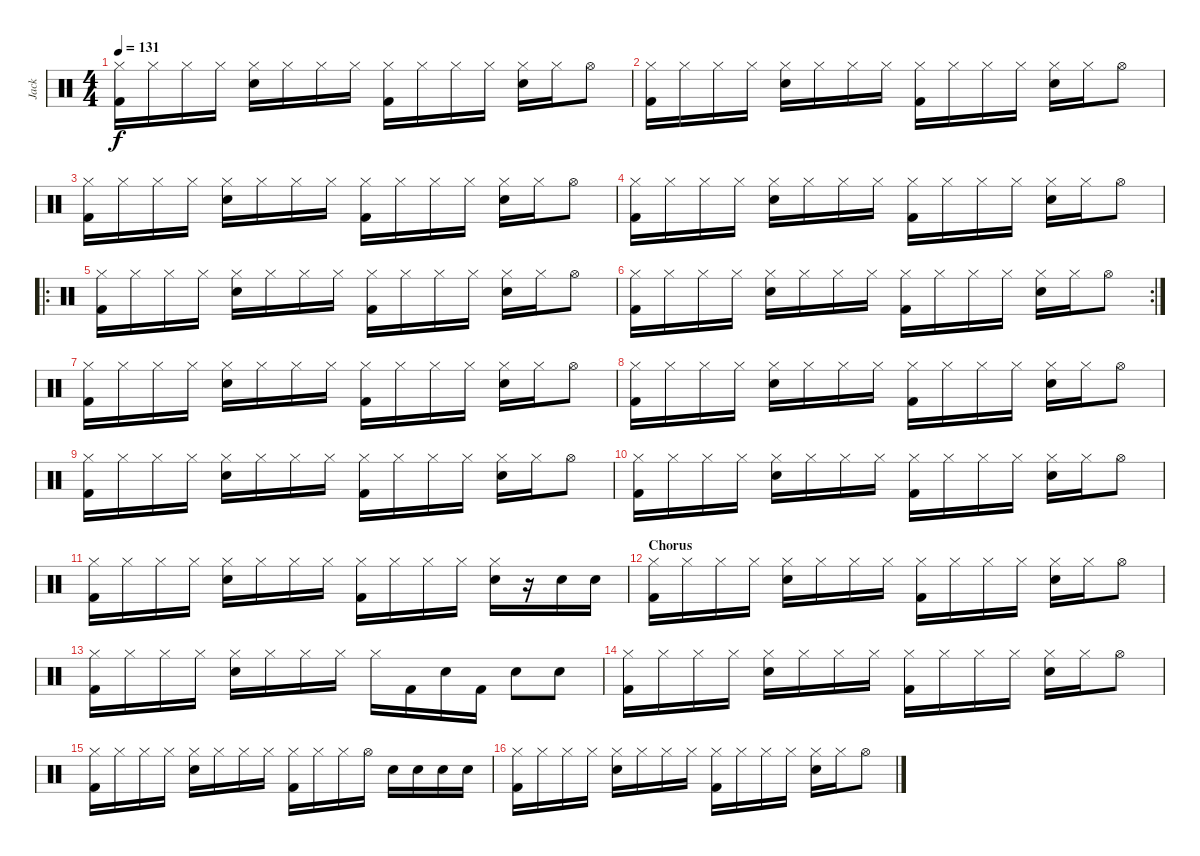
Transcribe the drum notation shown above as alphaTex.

\track ("Jack" "Jack") {instrument percussion}
\staff {score}
\articulation defaults
\ts (4 4)
\tempo 131
\clef neutral
\ks c
("Hi-Hat (closed)" "Kick (hit) 2").16{dy f} "Hi-Hat (closed)".16 "Hi-Hat (closed)".16 "Hi-Hat (closed)".16 ("Hi-Hat (closed)" "Electric Snare (hit)").16 "Hi-Hat (closed)".16 "Hi-Hat (closed)".16 "Hi-Hat (closed)".16 ("Hi-Hat (closed)" "Kick (hit) 2").16 "Hi-Hat (closed)".16 "Hi-Hat (closed)".16 "Hi-Hat (closed)".16 ("Hi-Hat (closed)" "Electric Snare (hit)").16 "Hi-Hat (closed)".16 "Hi-Hat (open)".8 |
("Hi-Hat (closed)" "Kick (hit) 2").16 "Hi-Hat (closed)".16 "Hi-Hat (closed)".16 "Hi-Hat (closed)".16 ("Hi-Hat (closed)" "Electric Snare (hit)").16 "Hi-Hat (closed)".16 "Hi-Hat (closed)".16 "Hi-Hat (closed)".16 ("Hi-Hat (closed)" "Kick (hit) 2").16 "Hi-Hat (closed)".16 "Hi-Hat (closed)".16 "Hi-Hat (closed)".16 ("Hi-Hat (closed)" "Electric Snare (hit)").16 "Hi-Hat (closed)".16 "Hi-Hat (open)".8 |
("Hi-Hat (closed)" "Kick (hit) 2").16 "Hi-Hat (closed)".16 "Hi-Hat (closed)".16 "Hi-Hat (closed)".16 ("Hi-Hat (closed)" "Electric Snare (hit)").16 "Hi-Hat (closed)".16 "Hi-Hat (closed)".16 "Hi-Hat (closed)".16 ("Hi-Hat (closed)" "Kick (hit) 2").16 "Hi-Hat (closed)".16 "Hi-Hat (closed)".16 "Hi-Hat (closed)".16 ("Hi-Hat (closed)" "Electric Snare (hit)").16 "Hi-Hat (closed)".16 "Hi-Hat (open)".8 |
("Hi-Hat (closed)" "Kick (hit) 2").16 "Hi-Hat (closed)".16 "Hi-Hat (closed)".16 "Hi-Hat (closed)".16 ("Hi-Hat (closed)" "Electric Snare (hit)").16 "Hi-Hat (closed)".16 "Hi-Hat (closed)".16 "Hi-Hat (closed)".16 ("Hi-Hat (closed)" "Kick (hit) 2").16 "Hi-Hat (closed)".16 "Hi-Hat (closed)".16 "Hi-Hat (closed)".16 ("Hi-Hat (closed)" "Electric Snare (hit)").16 "Hi-Hat (closed)".16 "Hi-Hat (open)".8 |
\ro
("Hi-Hat (closed)" "Kick (hit) 2").16 "Hi-Hat (closed)".16 "Hi-Hat (closed)".16 "Hi-Hat (closed)".16 ("Hi-Hat (closed)" "Electric Snare (hit)").16 "Hi-Hat (closed)".16 "Hi-Hat (closed)".16 "Hi-Hat (closed)".16 ("Hi-Hat (closed)" "Kick (hit) 2").16 "Hi-Hat (closed)".16 "Hi-Hat (closed)".16 "Hi-Hat (closed)".16 ("Hi-Hat (closed)" "Electric Snare (hit)").16 "Hi-Hat (closed)".16 "Hi-Hat (open)".8 |
\rc 2
("Hi-Hat (closed)" "Kick (hit) 2").16 "Hi-Hat (closed)".16 "Hi-Hat (closed)".16 "Hi-Hat (closed)".16 ("Hi-Hat (closed)" "Electric Snare (hit)").16 "Hi-Hat (closed)".16 "Hi-Hat (closed)".16 "Hi-Hat (closed)".16 ("Hi-Hat (closed)" "Kick (hit) 2").16 "Hi-Hat (closed)".16 "Hi-Hat (closed)".16 "Hi-Hat (closed)".16 ("Hi-Hat (closed)" "Electric Snare (hit)").16 "Hi-Hat (closed)".16 "Hi-Hat (open)".8 |
("Hi-Hat (closed)" "Kick (hit) 2").16 "Hi-Hat (closed)".16 "Hi-Hat (closed)".16 "Hi-Hat (closed)".16 ("Hi-Hat (closed)" "Electric Snare (hit)").16 "Hi-Hat (closed)".16 "Hi-Hat (closed)".16 "Hi-Hat (closed)".16 ("Hi-Hat (closed)" "Kick (hit) 2").16 "Hi-Hat (closed)".16 "Hi-Hat (closed)".16 "Hi-Hat (closed)".16 ("Hi-Hat (closed)" "Electric Snare (hit)").16 "Hi-Hat (closed)".16 "Hi-Hat (open)".8 |
("Hi-Hat (closed)" "Kick (hit) 2").16 "Hi-Hat (closed)".16 "Hi-Hat (closed)".16 "Hi-Hat (closed)".16 ("Hi-Hat (closed)" "Electric Snare (hit)").16 "Hi-Hat (closed)".16 "Hi-Hat (closed)".16 "Hi-Hat (closed)".16 ("Hi-Hat (closed)" "Kick (hit) 2").16 "Hi-Hat (closed)".16 "Hi-Hat (closed)".16 "Hi-Hat (closed)".16 ("Hi-Hat (closed)" "Electric Snare (hit)").16 "Hi-Hat (closed)".16 "Hi-Hat (open)".8 |
("Hi-Hat (closed)" "Kick (hit) 2").16 "Hi-Hat (closed)".16 "Hi-Hat (closed)".16 "Hi-Hat (closed)".16 ("Hi-Hat (closed)" "Electric Snare (hit)").16 "Hi-Hat (closed)".16 "Hi-Hat (closed)".16 "Hi-Hat (closed)".16 ("Hi-Hat (closed)" "Kick (hit) 2").16 "Hi-Hat (closed)".16 "Hi-Hat (closed)".16 "Hi-Hat (closed)".16 ("Hi-Hat (closed)" "Electric Snare (hit)").16 "Hi-Hat (closed)".16 "Hi-Hat (open)".8 |
("Hi-Hat (closed)" "Kick (hit) 2").16 "Hi-Hat (closed)".16 "Hi-Hat (closed)".16 "Hi-Hat (closed)".16 ("Hi-Hat (closed)" "Electric Snare (hit)").16 "Hi-Hat (closed)".16 "Hi-Hat (closed)".16 "Hi-Hat (closed)".16 ("Hi-Hat (closed)" "Kick (hit) 2").16 "Hi-Hat (closed)".16 "Hi-Hat (closed)".16 "Hi-Hat (closed)".16 ("Hi-Hat (closed)" "Electric Snare (hit)").16 "Hi-Hat (closed)".16 "Hi-Hat (open)".8 |
("Hi-Hat (closed)" "Kick (hit) 2").16 "Hi-Hat (closed)".16 "Hi-Hat (closed)".16 "Hi-Hat (closed)".16 ("Hi-Hat (closed)" "Electric Snare (hit)").16 "Hi-Hat (closed)".16 "Hi-Hat (closed)".16 "Hi-Hat (closed)".16 ("Hi-Hat (closed)" "Kick (hit) 2").16 "Hi-Hat (closed)".16 "Hi-Hat (closed)".16 "Hi-Hat (closed)".16 ("Hi-Hat (closed)" "Electric Snare (hit)").16 r.16 "Electric Snare (hit)".16 "Electric Snare (hit)".16 |
\section ("" "Chorus")
("Hi-Hat (closed)" "Kick (hit) 2").16 "Hi-Hat (closed)".16 "Hi-Hat (closed)".16 "Hi-Hat (closed)".16 ("Hi-Hat (closed)" "Electric Snare (hit)").16 "Hi-Hat (closed)".16 "Hi-Hat (closed)".16 "Hi-Hat (closed)".16 ("Hi-Hat (closed)" "Kick (hit) 2").16 "Hi-Hat (closed)".16 "Hi-Hat (closed)".16 "Hi-Hat (closed)".16 ("Hi-Hat (closed)" "Electric Snare (hit)").16 "Hi-Hat (closed)".16 "Hi-Hat (open)".8 |
("Hi-Hat (closed)" "Kick (hit) 2").16 "Hi-Hat (closed)".16 "Hi-Hat (closed)".16 "Hi-Hat (closed)".16 ("Hi-Hat (closed)" "Electric Snare (hit)").16 "Hi-Hat (closed)".16 "Hi-Hat (closed)".16 "Hi-Hat (closed)".16 "Hi-Hat (closed)".16 "Kick (hit) 2".16 "Electric Snare (hit)".16 "Kick (hit) 2".16 "Electric Snare (hit)".8 "Electric Snare (hit)".8 |
("Hi-Hat (closed)" "Kick (hit) 2").16 "Hi-Hat (closed)".16 "Hi-Hat (closed)".16 "Hi-Hat (closed)".16 ("Hi-Hat (closed)" "Electric Snare (hit)").16 "Hi-Hat (closed)".16 "Hi-Hat (closed)".16 "Hi-Hat (closed)".16 ("Hi-Hat (closed)" "Kick (hit) 2").16 "Hi-Hat (closed)".16 "Hi-Hat (closed)".16 "Hi-Hat (closed)".16 ("Hi-Hat (closed)" "Electric Snare (hit)").16 "Hi-Hat (closed)".16 "Hi-Hat (open)".8 |
("Hi-Hat (closed)" "Kick (hit) 2").16 "Hi-Hat (closed)".16 "Hi-Hat (closed)".16 "Hi-Hat (closed)".16 ("Hi-Hat (closed)" "Electric Snare (hit)").16 "Hi-Hat (closed)".16 "Hi-Hat (closed)".16 "Hi-Hat (closed)".16 ("Hi-Hat (closed)" "Kick (hit) 2").16 "Hi-Hat (closed)".16 "Hi-Hat (closed)".16 "Hi-Hat (open)".16 "Electric Snare (hit)".16 "Electric Snare (hit)".16 "Electric Snare (hit)".16 "Electric Snare (hit)".16 |
("Hi-Hat (closed)" "Kick (hit) 2").16 "Hi-Hat (closed)".16 "Hi-Hat (closed)".16 "Hi-Hat (closed)".16 ("Hi-Hat (closed)" "Electric Snare (hit)").16 "Hi-Hat (closed)".16 "Hi-Hat (closed)".16 "Hi-Hat (closed)".16 ("Hi-Hat (closed)" "Kick (hit) 2").16 "Hi-Hat (closed)".16 "Hi-Hat (closed)".16 "Hi-Hat (closed)".16 ("Hi-Hat (closed)" "Electric Snare (hit)").16 "Hi-Hat (closed)".16 "Hi-Hat (open)".8
